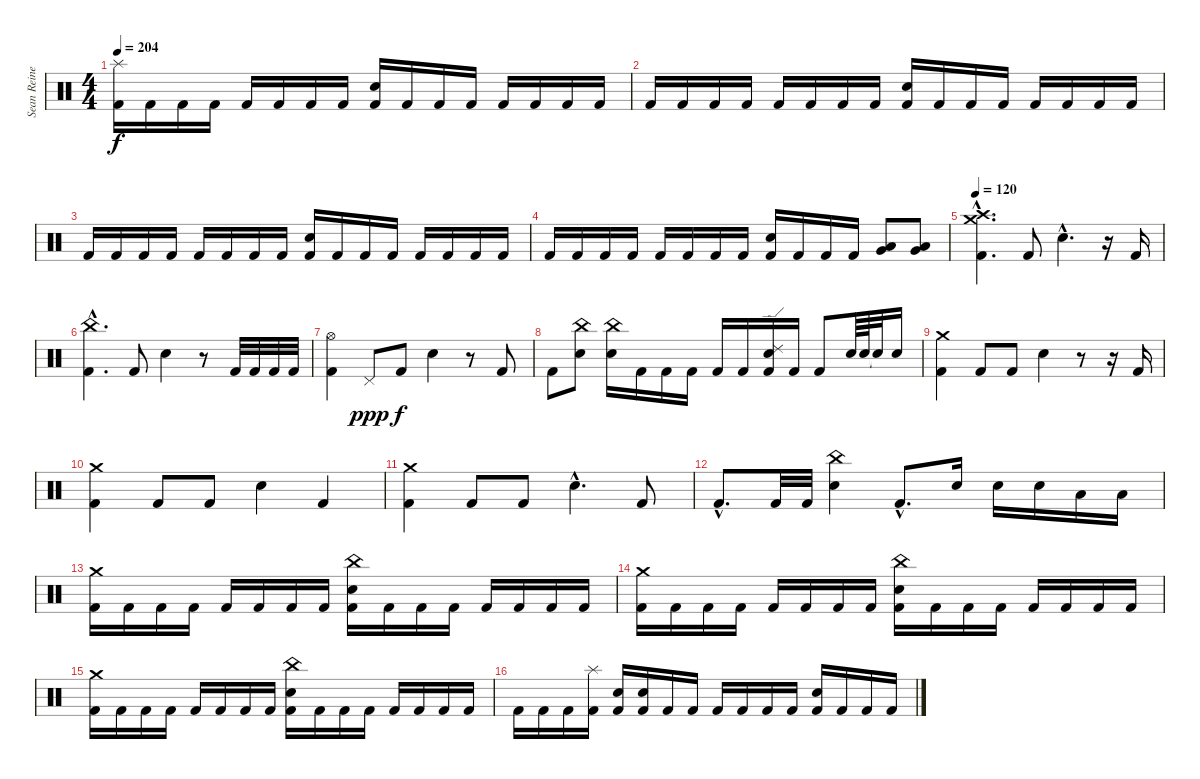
\track ("Sean Reinert" "Sean Reine") {instrument percussion}
\staff {score}
\articulation defaults
\ts (4 4)
\tempo 204
\clef neutral
\ks c
("Splash (hit)" "Kick (hit) 2").16{dy f} "Kick (hit) 2".16 "Kick (hit) 2".16 "Kick (hit) 2".16 "Kick (hit) 2".16 "Kick (hit) 2".16 "Kick (hit) 2".16 "Kick (hit) 2".16 ("Snare (hit) 2" "Kick (hit) 2").16 "Kick (hit) 2".16 "Kick (hit) 2".16 "Kick (hit) 2".16 "Kick (hit) 2".16 "Kick (hit) 2".16 "Kick (hit) 2".16 "Kick (hit) 2".16 |
"Kick (hit) 2".16 "Kick (hit) 2".16 "Kick (hit) 2".16 "Kick (hit) 2".16 "Kick (hit) 2".16 "Kick (hit) 2".16 "Kick (hit) 2".16 "Kick (hit) 2".16 ("Snare (hit) 2" "Kick (hit) 2").16 "Kick (hit) 2".16 "Kick (hit) 2".16 "Kick (hit) 2".16 "Kick (hit) 2".16 "Kick (hit) 2".16 "Kick (hit) 2".16 "Kick (hit) 2".16 |
"Kick (hit) 2".16 "Kick (hit) 2".16 "Kick (hit) 2".16 "Kick (hit) 2".16 "Kick (hit) 2".16 "Kick (hit) 2".16 "Kick (hit) 2".16 "Kick (hit) 2".16 ("Snare (hit) 2" "Kick (hit) 2").16 "Kick (hit) 2".16 "Kick (hit) 2".16 "Kick (hit) 2".16 "Kick (hit) 2".16 "Kick (hit) 2".16 "Kick (hit) 2".16 "Kick (hit) 2".16 |
"Kick (hit) 2".16 "Kick (hit) 2".16 "Kick (hit) 2".16 "Kick (hit) 2".16 "Kick (hit) 2".16 "Kick (hit) 2".16 "Kick (hit) 2".16 "Kick (hit) 2".16 ("Snare (hit) 2" "Kick (hit) 2").16 "Kick (hit) 2".16 "Kick (hit) 2".16 "Kick (hit) 2".16 ("Low Tom (hit)" "Very Low Tom (hit)").8 ("Low Tom (hit)" "Very Low Tom (hit)").8 |
\tempo 120
("Crash medium (hit)"{hac} "Crash high (hit)"{hac} "Kick (hit) 2"{hac}).4{d} "Kick (hit) 2".8 "Snare (hit) 2"{hac}.4{d} r.16 "Kick (hit) 2".16 |
("China (hit)"{hac} "Kick (hit) 2"{hac}).4{d} "Kick (hit) 2".8 "Snare (hit) 2".4 r.8 "Kick (hit) 2".32 "Kick (hit) 2".32 "Kick (hit) 2".32 "Kick (hit) 2".32 |
("Hi-Hat (open)" "Kick (hit) 2").4 "Pedal Hi-Hat (hit)".8{dy ppp} "Kick (hit) 2".8{dy f} "Snare (hit) 2".4 r.8 "Kick (hit) 2".8 |
"Kick (hit) 2".8 ("China (hit)" "Snare (hit) 2").8 ("China (hit)" "Snare (hit) 2").16 "Kick (hit) 2".16 "Kick (hit) 2".16 "Kick (hit) 2".16 "Kick (hit) 2".16 "Kick (hit) 2".16 ("Ride (edge) 2" "Snare (hit) 2" "Kick (hit) 2").16 "Kick (hit) 2".16 "Kick (hit) 2".8 "Snare (hit) 2".64 "Snare (hit) 2".64 "Snare (hit)"{t}.32 "Snare (hit) 2".16 |
("Crash medium (hit)" "Kick (hit) 2").4 "Kick (hit) 2".8 "Kick (hit) 2".8 "Snare (hit) 2".4 r.8 r.16 "Kick (hit) 2".16 |
("Crash medium (hit)" "Kick (hit) 2").4 "Kick (hit) 2".8 "Kick (hit) 2".8 "Snare (hit) 2".4 "Kick (hit) 2".4 |
("Crash medium (hit)" "Kick (hit) 2").4 "Kick (hit) 2".8 "Kick (hit) 2".8 "Snare (hit) 2"{hac}.4{d} "Kick (hit) 2".8 |
"Kick (hit) 2"{hac}.8{d} "Kick (hit) 2".32 "Kick (hit) 2".32 ("China (hit)" "Snare (hit) 2").4 "Kick (hit) 2"{hac}.8{d} "Snare (hit) 2".16 "Snare (hit) 2".16 "Snare (hit) 2".16 "Low Tom (hit)".16 "Low Tom (hit)".16 |
("Crash medium (hit)" "Kick (hit) 2").16 "Kick (hit) 2".16 "Kick (hit) 2".16 "Kick (hit) 2".16 "Kick (hit) 2".16 "Kick (hit) 2".16 "Kick (hit) 2".16 "Kick (hit) 2".16 ("China (hit)" "Snare (hit) 2" "Kick (hit) 2").16 "Kick (hit) 2".16 "Kick (hit) 2".16 "Kick (hit) 2".16 "Kick (hit) 2".16 "Kick (hit) 2".16 "Kick (hit) 2".16 "Kick (hit) 2".16 |
("Crash medium (hit)" "Kick (hit) 2").16 "Kick (hit) 2".16 "Kick (hit) 2".16 "Kick (hit) 2".16 "Kick (hit) 2".16 "Kick (hit) 2".16 "Kick (hit) 2".16 "Kick (hit) 2".16 ("China (hit)" "Snare (hit) 2" "Kick (hit) 2").16 "Kick (hit) 2".16 "Kick (hit) 2".16 "Kick (hit) 2".16 "Kick (hit) 2".16 "Kick (hit) 2".16 "Kick (hit) 2".16 "Kick (hit) 2".16 |
("Crash medium (hit)" "Kick (hit) 2").16 "Kick (hit) 2".16 "Kick (hit) 2".16 "Kick (hit) 2".16 "Kick (hit) 2".16 "Kick (hit) 2".16 "Kick (hit) 2".16 "Kick (hit) 2".16 ("China (hit)" "Snare (hit) 2" "Kick (hit) 2").16 "Kick (hit) 2".16 "Kick (hit) 2".16 "Kick (hit) 2".16 "Kick (hit) 2".16 "Kick (hit) 2".16 "Kick (hit) 2".16 "Kick (hit) 2".16 |
"Kick (hit) 2".16 "Kick (hit) 2".16 "Kick (hit) 2".16 ("Splash (hit)" "Kick (hit) 2").16 ("Snare (hit) 2" "Kick (hit) 2").16 ("Snare (hit) 2" "Kick (hit) 2").16 "Kick (hit) 2".16 "Kick (hit) 2".16 "Kick (hit) 2".16 "Kick (hit) 2".16 "Kick (hit) 2".16 "Kick (hit) 2".16 ("Snare (hit) 2" "Kick (hit) 2").16 "Kick (hit) 2".16 "Kick (hit) 2".16 "Kick (hit) 2".16
